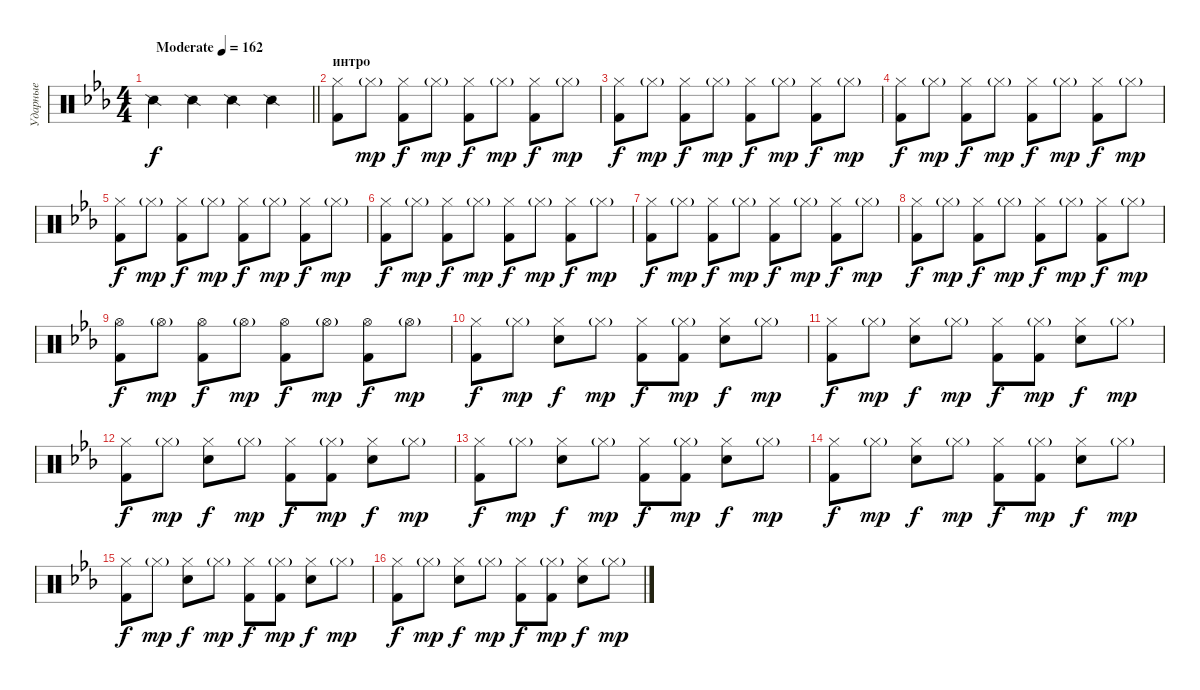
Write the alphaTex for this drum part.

\track ("Ударные" "Ударные") {instrument percussion}
\staff {score}
\articulation defaults
\ts (4 4)
\tempo (162 "Moderate")
\clef neutral
\barLineRight lightlight
\ks cminor "Snare (side stick) 2".4{dy f} "Snare (side stick) 2".4 "Snare (side stick) 2".4 "Snare (side stick) 2".4
|
\section ("" "интро")
("Hi-Hat (closed)" "Kick (hit) 2").8 "Hi-Hat (closed)"{g}.8{dy mp} ("Hi-Hat (closed)" "Kick (hit) 2").8{dy f} "Hi-Hat (closed)"{g}.8{dy mp} ("Hi-Hat (closed)" "Kick (hit) 2").8{dy f} "Hi-Hat (closed)"{g}.8{dy mp} ("Hi-Hat (closed)" "Kick (hit) 2").8{dy f} "Hi-Hat (closed)"{g}.8{dy mp} |
("Hi-Hat (closed)" "Kick (hit) 2").8{dy f} "Hi-Hat (closed)"{g}.8{dy mp} ("Hi-Hat (closed)" "Kick (hit) 2").8{dy f} "Hi-Hat (closed)"{g}.8{dy mp} ("Hi-Hat (closed)" "Kick (hit) 2").8{dy f} "Hi-Hat (closed)"{g}.8{dy mp} ("Hi-Hat (closed)" "Kick (hit) 2").8{dy f} "Hi-Hat (closed)"{g}.8{dy mp} |
("Hi-Hat (closed)" "Kick (hit) 2").8{dy f} "Hi-Hat (closed)"{g}.8{dy mp} ("Hi-Hat (closed)" "Kick (hit) 2").8{dy f} "Hi-Hat (closed)"{g}.8{dy mp} ("Hi-Hat (closed)" "Kick (hit) 2").8{dy f} "Hi-Hat (closed)"{g}.8{dy mp} ("Hi-Hat (closed)" "Kick (hit) 2").8{dy f} "Hi-Hat (closed)"{g}.8{dy mp} |
("Hi-Hat (closed)" "Kick (hit) 2").8{dy f} "Hi-Hat (closed)"{g}.8{dy mp} ("Hi-Hat (closed)" "Kick (hit) 2").8{dy f} "Hi-Hat (closed)"{g}.8{dy mp} ("Hi-Hat (closed)" "Kick (hit) 2").8{dy f} "Hi-Hat (closed)"{g}.8{dy mp} ("Hi-Hat (closed)" "Kick (hit) 2").8{dy f} "Hi-Hat (closed)"{g}.8{dy mp} |
("Hi-Hat (closed)" "Kick (hit) 2").8{dy f} "Hi-Hat (closed)"{g}.8{dy mp} ("Hi-Hat (closed)" "Kick (hit) 2").8{dy f} "Hi-Hat (closed)"{g}.8{dy mp} ("Hi-Hat (closed)" "Kick (hit) 2").8{dy f} "Hi-Hat (closed)"{g}.8{dy mp} ("Hi-Hat (closed)" "Kick (hit) 2").8{dy f} "Hi-Hat (closed)"{g}.8{dy mp} |
("Hi-Hat (closed)" "Kick (hit) 2").8{dy f} "Hi-Hat (closed)"{g}.8{dy mp} ("Hi-Hat (closed)" "Kick (hit) 2").8{dy f} "Hi-Hat (closed)"{g}.8{dy mp} ("Hi-Hat (closed)" "Kick (hit) 2").8{dy f} "Hi-Hat (closed)"{g}.8{dy mp} ("Hi-Hat (closed)" "Kick (hit) 2").8{dy f} "Hi-Hat (closed)"{g}.8{dy mp} |
("Hi-Hat (closed)" "Kick (hit) 2").8{dy f} "Hi-Hat (closed)"{g}.8{dy mp} ("Hi-Hat (closed)" "Kick (hit) 2").8{dy f} "Hi-Hat (closed)"{g}.8{dy mp} ("Hi-Hat (closed)" "Kick (hit) 2").8{dy f} "Hi-Hat (closed)"{g}.8{dy mp} ("Hi-Hat (closed)" "Kick (hit) 2").8{dy f} "Hi-Hat (closed)"{g}.8{dy mp} |
("Hi-Hat (open)" "Kick (hit) 2").8{dy f} "Hi-Hat (open)"{g}.8{dy mp} ("Hi-Hat (open)" "Kick (hit) 2").8{dy f} "Hi-Hat (open)"{g}.8{dy mp} ("Hi-Hat (open)" "Kick (hit) 2").8{dy f} "Hi-Hat (open)"{g}.8{dy mp} ("Hi-Hat (open)" "Kick (hit) 2").8{dy f} "Hi-Hat (open)"{g}.8{dy mp} |
("Hi-Hat (closed)" "Kick (hit) 2").8{dy f} "Hi-Hat (closed)"{g}.8{dy mp} ("Hi-Hat (closed)" "Snare (hit) 2").8{dy f} "Hi-Hat (closed)"{g}.8{dy mp} ("Hi-Hat (closed)" "Kick (hit) 2").8{dy f} ("Hi-Hat (closed)"{g} "Kick (hit) 2").8{dy mp} ("Hi-Hat (closed)" "Snare (hit) 2").8{dy f} "Hi-Hat (closed)"{g}.8{dy mp} |
("Hi-Hat (closed)" "Kick (hit) 2").8{dy f} "Hi-Hat (closed)"{g}.8{dy mp} ("Hi-Hat (closed)" "Snare (hit) 2").8{dy f} "Hi-Hat (closed)"{g}.8{dy mp} ("Hi-Hat (closed)" "Kick (hit) 2").8{dy f} ("Hi-Hat (closed)"{g} "Kick (hit) 2").8{dy mp} ("Hi-Hat (closed)" "Snare (hit) 2").8{dy f} "Hi-Hat (closed)"{g}.8{dy mp} |
("Hi-Hat (closed)" "Kick (hit) 2").8{dy f} "Hi-Hat (closed)"{g}.8{dy mp} ("Hi-Hat (closed)" "Snare (hit) 2").8{dy f} "Hi-Hat (closed)"{g}.8{dy mp} ("Hi-Hat (closed)" "Kick (hit) 2").8{dy f} ("Hi-Hat (closed)"{g} "Kick (hit) 2").8{dy mp} ("Hi-Hat (closed)" "Snare (hit) 2").8{dy f} "Hi-Hat (closed)"{g}.8{dy mp} |
("Hi-Hat (closed)" "Kick (hit) 2").8{dy f} "Hi-Hat (closed)"{g}.8{dy mp} ("Hi-Hat (closed)" "Snare (hit) 2").8{dy f} "Hi-Hat (closed)"{g}.8{dy mp} ("Hi-Hat (closed)" "Kick (hit) 2").8{dy f} ("Hi-Hat (closed)"{g} "Kick (hit) 2").8{dy mp} ("Hi-Hat (closed)" "Snare (hit) 2").8{dy f} "Hi-Hat (closed)"{g}.8{dy mp} |
("Hi-Hat (closed)" "Kick (hit) 2").8{dy f} "Hi-Hat (closed)"{g}.8{dy mp} ("Hi-Hat (closed)" "Snare (hit) 2").8{dy f} "Hi-Hat (closed)"{g}.8{dy mp} ("Hi-Hat (closed)" "Kick (hit) 2").8{dy f} ("Hi-Hat (closed)"{g} "Kick (hit) 2").8{dy mp} ("Hi-Hat (closed)" "Snare (hit) 2").8{dy f} "Hi-Hat (closed)"{g}.8{dy mp} |
("Hi-Hat (closed)" "Kick (hit) 2").8{dy f} "Hi-Hat (closed)"{g}.8{dy mp} ("Hi-Hat (closed)" "Snare (hit) 2").8{dy f} "Hi-Hat (closed)"{g}.8{dy mp} ("Hi-Hat (closed)" "Kick (hit) 2").8{dy f} ("Hi-Hat (closed)"{g} "Kick (hit) 2").8{dy mp} ("Hi-Hat (closed)" "Snare (hit) 2").8{dy f} "Hi-Hat (closed)"{g}.8{dy mp} |
("Hi-Hat (closed)" "Kick (hit) 2").8{dy f} "Hi-Hat (closed)"{g}.8{dy mp} ("Hi-Hat (closed)" "Snare (hit) 2").8{dy f} "Hi-Hat (closed)"{g}.8{dy mp} ("Hi-Hat (closed)" "Kick (hit) 2").8{dy f} ("Hi-Hat (closed)"{g} "Kick (hit) 2").8{dy mp} ("Hi-Hat (closed)" "Snare (hit) 2").8{dy f} "Hi-Hat (closed)"{g}.8{dy mp}
